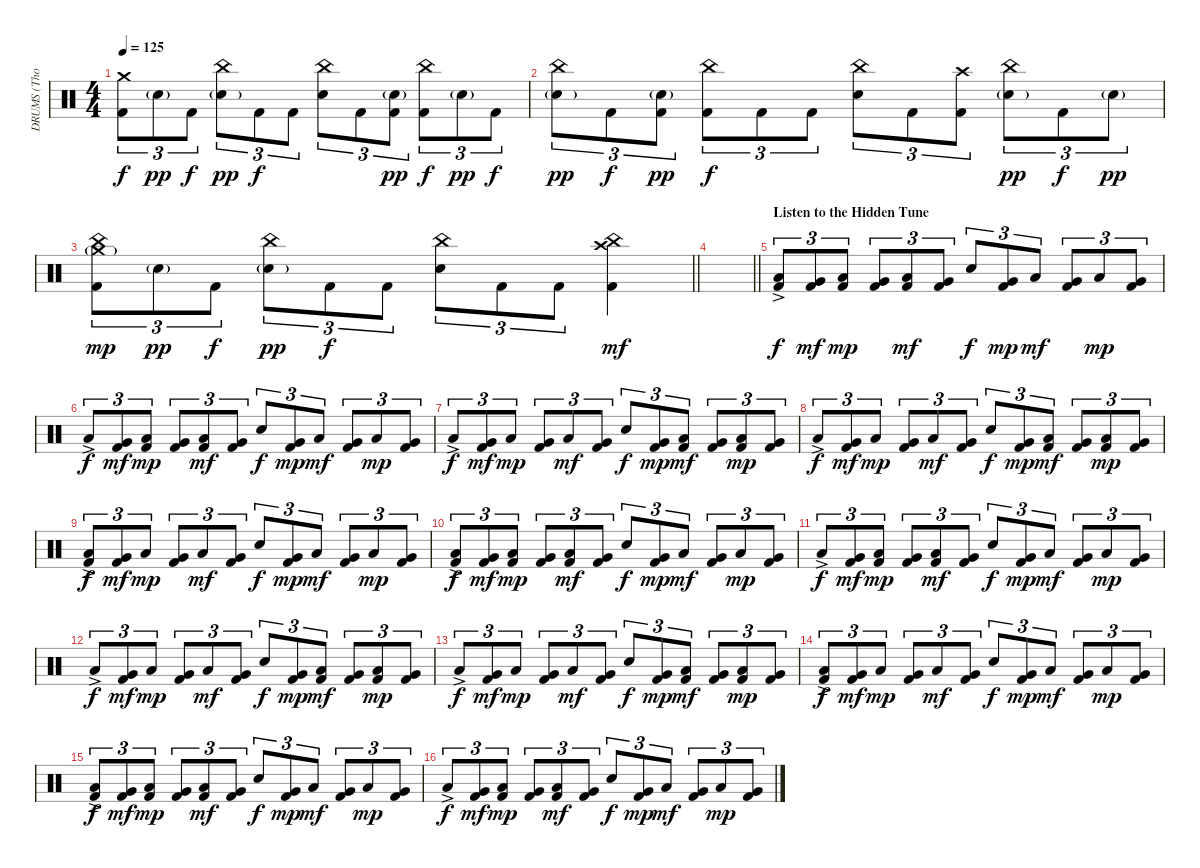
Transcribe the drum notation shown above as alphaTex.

\track ("DRUMS (Thomas Haake)" "DRUMS (Tho") {instrument percussion}
\staff {score}
\articulation defaults
\ts (4 4)
\tempo 125
\clef neutral
\ks c
("Crash medium (hit)" "Kick (hit) 2").8{tu (3 2) dy f} "Electric Snare (hit)"{g}.8{tu (3 2) dy pp} "Kick (hit) 2".8{tu (3 2) dy f} ("China (hit)" "Electric Snare (hit)"{g}).8{tu (3 2) dy pp} "Kick (hit) 2".8{tu (3 2) dy f} "Kick (hit) 2".8{tu (3 2)} ("China (hit)" "Electric Snare (hit)").8{tu (3 2)} "Kick (hit) 2".8{tu (3 2)} ("Electric Snare (hit)"{g} "Kick (hit) 2").8{tu (3 2) dy pp} ("China (hit)" "Kick (hit) 2").8{tu (3 2) dy f} "Electric Snare (hit)"{g}.8{tu (3 2) dy pp} "Kick (hit) 2".8{tu (3 2) dy f} |
("China (hit)" "Electric Snare (hit)"{g}).8{tu (3 2) dy pp} "Kick (hit) 2".8{tu (3 2) dy f} ("Electric Snare (hit)"{g} "Kick (hit) 2").8{tu (3 2) dy pp} ("China (hit)" "Kick (hit) 2").8{tu (3 2) dy f} "Kick (hit) 2".8{tu (3 2)} "Kick (hit) 2".8{tu (3 2)} ("China (hit)" "Electric Snare (hit)").8{tu (3 2)} "Kick (hit) 2".8{tu (3 2)} ("Crash high (hit)" "Kick (hit) 2").8{tu (3 2)} ("China (hit)" "Electric Snare (hit)"{g}).8{tu (3 2) dy pp} "Kick (hit) 2".8{tu (3 2) dy f} "Electric Snare (hit)"{g}.8{tu (3 2) dy pp} |
\barLineRight lightlight
("China (hit)" "Crash medium (hit)"{g} "Kick (hit) 2").8{tu (3 2) dy mp} "Electric Snare (hit)"{g}.8{tu (3 2) dy pp} "Kick (hit) 2".8{tu (3 2) dy f} ("China (hit)" "Electric Snare (hit)"{g}).8{tu (3 2) dy pp} "Kick (hit) 2".8{tu (3 2) dy f} "Kick (hit) 2".8{tu (3 2)} ("China (hit)" "Electric Snare (hit)").8{tu (3 2)} "Kick (hit) 2".8{tu (3 2)} "Kick (hit) 2".8{tu (3 2)} ("China (hit)" "Crash high (hit)" "Kick (hit) 2").4{dy mf} |
\barLineRight lightlight
|
\section ("" "Listen to the Hidden Tune")
("Low Floor Tom (hit)"{ac} "Kick (hit) 2").8{tu (3 2) dy f} ("Very Low Tom (hit)" "Kick (hit) 2").8{tu (3 2) dy mf} ("Low Floor Tom (hit)" "Kick (hit) 2").8{tu (3 2) dy mp} ("Very Low Tom (hit)" "Kick (hit) 2").8{tu (3 2)} ("Low Floor Tom (hit)" "Kick (hit) 2").8{tu (3 2) dy mf} ("Very Low Tom (hit)" "Kick (hit) 2").8{tu (3 2)} "Electric Snare (hit)".8{tu (3 2) dy f} ("Very Low Tom (hit)" "Kick (hit) 2").8{tu (3 2) dy mp} "Low Floor Tom (hit)".8{tu (3 2) dy mf} ("Very Low Tom (hit)" "Kick (hit) 2").8{tu (3 2)} "Low Floor Tom (hit)".8{tu (3 2) dy mp} ("Very Low Tom (hit)" "Kick (hit) 2").8{tu (3 2)} |
"Low Floor Tom (hit)"{ac}.8{tu (3 2) dy f} ("Very Low Tom (hit)" "Kick (hit) 2").8{tu (3 2) dy mf} ("Low Floor Tom (hit)" "Kick (hit) 2").8{tu (3 2) dy mp} ("Very Low Tom (hit)" "Kick (hit) 2").8{tu (3 2)} ("Low Floor Tom (hit)" "Kick (hit) 2").8{tu (3 2) dy mf} ("Very Low Tom (hit)" "Kick (hit) 2").8{tu (3 2)} "Electric Snare (hit)".8{tu (3 2) dy f} ("Very Low Tom (hit)" "Kick (hit) 2").8{tu (3 2) dy mp} "Low Floor Tom (hit)".8{tu (3 2) dy mf} ("Very Low Tom (hit)" "Kick (hit) 2").8{tu (3 2)} "Low Floor Tom (hit)".8{tu (3 2) dy mp} ("Very Low Tom (hit)" "Kick (hit) 2").8{tu (3 2)} |
"Low Floor Tom (hit)"{ac}.8{tu (3 2) dy f} ("Very Low Tom (hit)" "Kick (hit) 2").8{tu (3 2) dy mf} "Low Floor Tom (hit)".8{tu (3 2) dy mp} ("Very Low Tom (hit)" "Kick (hit) 2").8{tu (3 2)} "Low Floor Tom (hit)".8{tu (3 2) dy mf} ("Very Low Tom (hit)" "Kick (hit) 2").8{tu (3 2)} "Electric Snare (hit)".8{tu (3 2) dy f} ("Very Low Tom (hit)" "Kick (hit) 2").8{tu (3 2) dy mp} ("Low Floor Tom (hit)" "Kick (hit) 2").8{tu (3 2) dy mf} ("Very Low Tom (hit)" "Kick (hit) 2").8{tu (3 2)} ("Low Floor Tom (hit)" "Kick (hit) 2").8{tu (3 2) dy mp} ("Very Low Tom (hit)" "Kick (hit) 2").8{tu (3 2)} |
"Low Floor Tom (hit)"{ac}.8{tu (3 2) dy f} ("Very Low Tom (hit)" "Kick (hit) 2").8{tu (3 2) dy mf} "Low Floor Tom (hit)".8{tu (3 2) dy mp} ("Very Low Tom (hit)" "Kick (hit) 2").8{tu (3 2)} "Low Floor Tom (hit)".8{tu (3 2) dy mf} ("Very Low Tom (hit)" "Kick (hit) 2").8{tu (3 2)} "Electric Snare (hit)".8{tu (3 2) dy f} ("Very Low Tom (hit)" "Kick (hit) 2").8{tu (3 2) dy mp} ("Low Floor Tom (hit)" "Kick (hit) 2").8{tu (3 2) dy mf} ("Very Low Tom (hit)" "Kick (hit) 2").8{tu (3 2)} ("Low Floor Tom (hit)" "Kick (hit) 2").8{tu (3 2) dy mp} ("Very Low Tom (hit)" "Kick (hit) 2").8{tu (3 2)} |
("Low Floor Tom (hit)"{ac} "Kick (hit) 2").8{tu (3 2) dy f} ("Very Low Tom (hit)" "Kick (hit) 2").8{tu (3 2) dy mf} "Low Floor Tom (hit)".8{tu (3 2) dy mp} ("Very Low Tom (hit)" "Kick (hit) 2").8{tu (3 2)} "Low Floor Tom (hit)".8{tu (3 2) dy mf} ("Very Low Tom (hit)" "Kick (hit) 2").8{tu (3 2)} "Electric Snare (hit)".8{tu (3 2) dy f} ("Very Low Tom (hit)" "Kick (hit) 2").8{tu (3 2) dy mp} "Low Floor Tom (hit)".8{tu (3 2) dy mf} ("Very Low Tom (hit)" "Kick (hit) 2").8{tu (3 2)} "Low Floor Tom (hit)".8{tu (3 2) dy mp} ("Very Low Tom (hit)" "Kick (hit) 2").8{tu (3 2)} |
("Low Floor Tom (hit)"{ac} "Kick (hit) 2").8{tu (3 2) dy f} ("Very Low Tom (hit)" "Kick (hit) 2").8{tu (3 2) dy mf} ("Low Floor Tom (hit)" "Kick (hit) 2").8{tu (3 2) dy mp} ("Very Low Tom (hit)" "Kick (hit) 2").8{tu (3 2)} ("Low Floor Tom (hit)" "Kick (hit) 2").8{tu (3 2) dy mf} ("Very Low Tom (hit)" "Kick (hit) 2").8{tu (3 2)} "Electric Snare (hit)".8{tu (3 2) dy f} ("Very Low Tom (hit)" "Kick (hit) 2").8{tu (3 2) dy mp} "Low Floor Tom (hit)".8{tu (3 2) dy mf} ("Very Low Tom (hit)" "Kick (hit) 2").8{tu (3 2)} "Low Floor Tom (hit)".8{tu (3 2) dy mp} ("Very Low Tom (hit)" "Kick (hit) 2").8{tu (3 2)} |
"Low Floor Tom (hit)"{ac}.8{tu (3 2) dy f} ("Very Low Tom (hit)" "Kick (hit) 2").8{tu (3 2) dy mf} ("Low Floor Tom (hit)" "Kick (hit) 2").8{tu (3 2) dy mp} ("Very Low Tom (hit)" "Kick (hit) 2").8{tu (3 2)} ("Low Floor Tom (hit)" "Kick (hit) 2").8{tu (3 2) dy mf} ("Very Low Tom (hit)" "Kick (hit) 2").8{tu (3 2)} "Electric Snare (hit)".8{tu (3 2) dy f} ("Very Low Tom (hit)" "Kick (hit) 2").8{tu (3 2) dy mp} "Low Floor Tom (hit)".8{tu (3 2) dy mf} ("Very Low Tom (hit)" "Kick (hit) 2").8{tu (3 2)} "Low Floor Tom (hit)".8{tu (3 2) dy mp} ("Very Low Tom (hit)" "Kick (hit) 2").8{tu (3 2)} |
"Low Floor Tom (hit)"{ac}.8{tu (3 2) dy f} ("Very Low Tom (hit)" "Kick (hit) 2").8{tu (3 2) dy mf} "Low Floor Tom (hit)".8{tu (3 2) dy mp} ("Very Low Tom (hit)" "Kick (hit) 2").8{tu (3 2)} "Low Floor Tom (hit)".8{tu (3 2) dy mf} ("Very Low Tom (hit)" "Kick (hit) 2").8{tu (3 2)} "Electric Snare (hit)".8{tu (3 2) dy f} ("Very Low Tom (hit)" "Kick (hit) 2").8{tu (3 2) dy mp} ("Low Floor Tom (hit)" "Kick (hit) 2").8{tu (3 2) dy mf} ("Very Low Tom (hit)" "Kick (hit) 2").8{tu (3 2)} ("Low Floor Tom (hit)" "Kick (hit) 2").8{tu (3 2) dy mp} ("Very Low Tom (hit)" "Kick (hit) 2").8{tu (3 2)} |
"Low Floor Tom (hit)"{ac}.8{tu (3 2) dy f} ("Very Low Tom (hit)" "Kick (hit) 2").8{tu (3 2) dy mf} "Low Floor Tom (hit)".8{tu (3 2) dy mp} ("Very Low Tom (hit)" "Kick (hit) 2").8{tu (3 2)} "Low Floor Tom (hit)".8{tu (3 2) dy mf} ("Very Low Tom (hit)" "Kick (hit) 2").8{tu (3 2)} "Electric Snare (hit)".8{tu (3 2) dy f} ("Very Low Tom (hit)" "Kick (hit) 2").8{tu (3 2) dy mp} ("Low Floor Tom (hit)" "Kick (hit) 2").8{tu (3 2) dy mf} ("Very Low Tom (hit)" "Kick (hit) 2").8{tu (3 2)} ("Low Floor Tom (hit)" "Kick (hit) 2").8{tu (3 2) dy mp} ("Very Low Tom (hit)" "Kick (hit) 2").8{tu (3 2)} |
("Low Floor Tom (hit)"{ac} "Kick (hit) 2").8{tu (3 2) dy f} ("Very Low Tom (hit)" "Kick (hit) 2").8{tu (3 2) dy mf} "Low Floor Tom (hit)".8{tu (3 2) dy mp} ("Very Low Tom (hit)" "Kick (hit) 2").8{tu (3 2)} "Low Floor Tom (hit)".8{tu (3 2) dy mf} ("Very Low Tom (hit)" "Kick (hit) 2").8{tu (3 2)} "Electric Snare (hit)".8{tu (3 2) dy f} ("Very Low Tom (hit)" "Kick (hit) 2").8{tu (3 2) dy mp} "Low Floor Tom (hit)".8{tu (3 2) dy mf} ("Very Low Tom (hit)" "Kick (hit) 2").8{tu (3 2)} "Low Floor Tom (hit)".8{tu (3 2) dy mp} ("Very Low Tom (hit)" "Kick (hit) 2").8{tu (3 2)} |
("Low Floor Tom (hit)"{ac} "Kick (hit) 2").8{tu (3 2) dy f} ("Very Low Tom (hit)" "Kick (hit) 2").8{tu (3 2) dy mf} ("Low Floor Tom (hit)" "Kick (hit) 2").8{tu (3 2) dy mp} ("Very Low Tom (hit)" "Kick (hit) 2").8{tu (3 2)} ("Low Floor Tom (hit)" "Kick (hit) 2").8{tu (3 2) dy mf} ("Very Low Tom (hit)" "Kick (hit) 2").8{tu (3 2)} "Electric Snare (hit)".8{tu (3 2) dy f} ("Very Low Tom (hit)" "Kick (hit) 2").8{tu (3 2) dy mp} "Low Floor Tom (hit)".8{tu (3 2) dy mf} ("Very Low Tom (hit)" "Kick (hit) 2").8{tu (3 2)} "Low Floor Tom (hit)".8{tu (3 2) dy mp} ("Very Low Tom (hit)" "Kick (hit) 2").8{tu (3 2)} |
"Low Floor Tom (hit)"{ac}.8{tu (3 2) dy f} ("Very Low Tom (hit)" "Kick (hit) 2").8{tu (3 2) dy mf} ("Low Floor Tom (hit)" "Kick (hit) 2").8{tu (3 2) dy mp} ("Very Low Tom (hit)" "Kick (hit) 2").8{tu (3 2)} ("Low Floor Tom (hit)" "Kick (hit) 2").8{tu (3 2) dy mf} ("Very Low Tom (hit)" "Kick (hit) 2").8{tu (3 2)} "Electric Snare (hit)".8{tu (3 2) dy f} ("Very Low Tom (hit)" "Kick (hit) 2").8{tu (3 2) dy mp} "Low Floor Tom (hit)".8{tu (3 2) dy mf} ("Very Low Tom (hit)" "Kick (hit) 2").8{tu (3 2)} "Low Floor Tom (hit)".8{tu (3 2) dy mp} ("Very Low Tom (hit)" "Kick (hit) 2").8{tu (3 2)}
